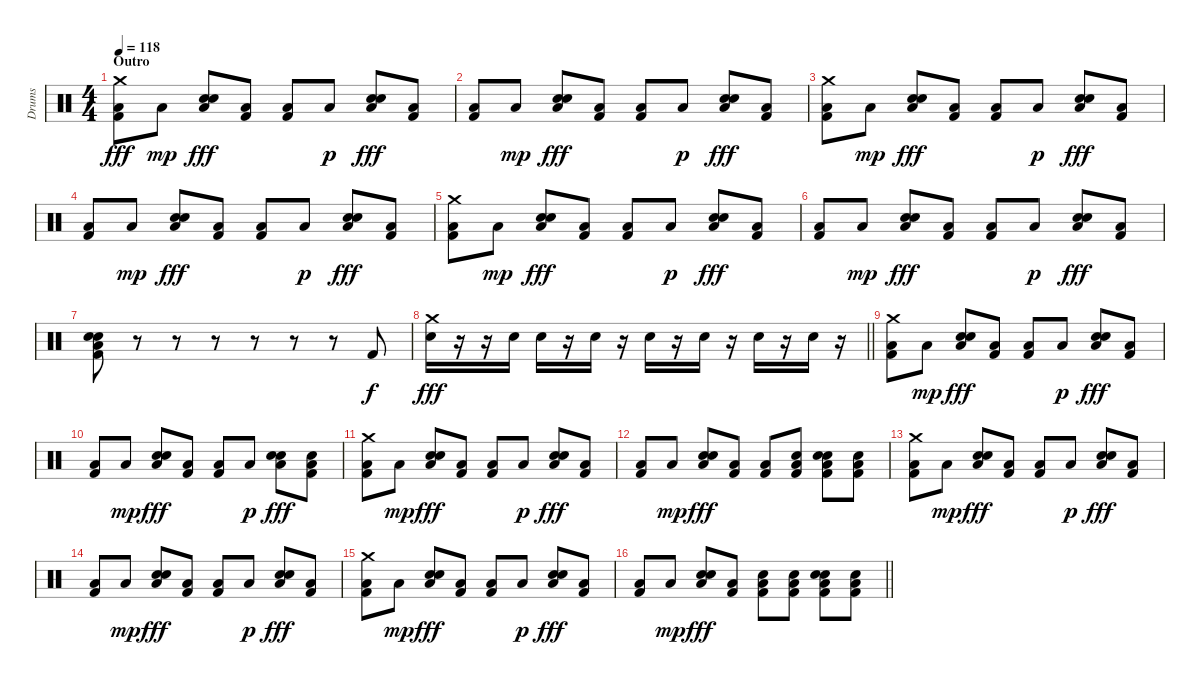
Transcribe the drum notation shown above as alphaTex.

\track ("Drums" "Drums") {instrument percussion}
\staff {score}
\articulation defaults
\ts (4 4)
\section ("" "Outro")
\tempo 118
\clef neutral
\ks c
("Crash medium (hit)" "Low Floor Tom (hit)" "Kick (hit) 2").8{dy fff} "Low Floor Tom (hit)".8{dy mp} ("Hand Clap (hit)" "Snare (hit) 2" "Low Floor Tom (hit)").8{dy fff} ("Low Floor Tom (hit)" "Kick (hit) 2").8 ("Low Floor Tom (hit)" "Kick (hit) 2").8 "Low Floor Tom (hit)".8{dy p} ("Hand Clap (hit)" "Snare (hit) 2" "Low Floor Tom (hit)").8{dy fff} ("Low Floor Tom (hit)" "Kick (hit) 2").8 |
("Low Floor Tom (hit)" "Kick (hit) 2").8 "Low Floor Tom (hit)".8{dy mp} ("Hand Clap (hit)" "Snare (hit) 2" "Low Floor Tom (hit)").8{dy fff} ("Low Floor Tom (hit)" "Kick (hit) 2").8 ("Low Floor Tom (hit)" "Kick (hit) 2").8 "Low Floor Tom (hit)".8{dy p} ("Hand Clap (hit)" "Snare (hit) 2" "Low Floor Tom (hit)").8{dy fff} ("Low Floor Tom (hit)" "Kick (hit) 2").8 |
("Crash medium (hit)" "Low Floor Tom (hit)" "Kick (hit) 2").8 "Low Floor Tom (hit)".8{dy mp} ("Hand Clap (hit)" "Snare (hit) 2" "Low Floor Tom (hit)").8{dy fff} ("Low Floor Tom (hit)" "Kick (hit) 2").8 ("Low Floor Tom (hit)" "Kick (hit) 2").8 "Low Floor Tom (hit)".8{dy p} ("Hand Clap (hit)" "Snare (hit) 2" "Low Floor Tom (hit)").8{dy fff} ("Low Floor Tom (hit)" "Kick (hit) 2").8 |
("Low Floor Tom (hit)" "Kick (hit) 2").8 "Low Floor Tom (hit)".8{dy mp} ("Hand Clap (hit)" "Snare (hit) 2" "Low Floor Tom (hit)").8{dy fff} ("Low Floor Tom (hit)" "Kick (hit) 2").8 ("Low Floor Tom (hit)" "Kick (hit) 2").8 "Low Floor Tom (hit)".8{dy p} ("Hand Clap (hit)" "Snare (hit) 2" "Low Floor Tom (hit)").8{dy fff} ("Low Floor Tom (hit)" "Kick (hit) 2").8 |
("Crash medium (hit)" "Low Floor Tom (hit)" "Kick (hit) 2").8 "Low Floor Tom (hit)".8{dy mp} ("Hand Clap (hit)" "Snare (hit) 2" "Low Floor Tom (hit)").8{dy fff} ("Low Floor Tom (hit)" "Kick (hit) 2").8 ("Low Floor Tom (hit)" "Kick (hit) 2").8 "Low Floor Tom (hit)".8{dy p} ("Hand Clap (hit)" "Snare (hit) 2" "Low Floor Tom (hit)").8{dy fff} ("Low Floor Tom (hit)" "Kick (hit) 2").8 |
("Low Floor Tom (hit)" "Kick (hit) 2").8 "Low Floor Tom (hit)".8{dy mp} ("Hand Clap (hit)" "Snare (hit) 2" "Low Floor Tom (hit)").8{dy fff} ("Low Floor Tom (hit)" "Kick (hit) 2").8 ("Low Floor Tom (hit)" "Kick (hit) 2").8 "Low Floor Tom (hit)".8{dy p} ("Hand Clap (hit)" "Snare (hit) 2" "Low Floor Tom (hit)").8{dy fff} ("Low Floor Tom (hit)" "Kick (hit) 2").8 |
("Snare (hit) 2" "Snare (hit) 2" "Low Floor Tom (hit)" "Kick (hit) 2").8 r.8 r.8 r.8 r.8 r.8 r.8 "Kick (hit) 2".8{dy f} |
\barLineRight lightlight
("Crash medium (hit)" "Snare (hit) 2").16{dy fff} r.16 r.16 "Snare (hit) 2".16 "Snare (hit) 2".16 r.16 "Snare (hit) 2".16 r.16 "Snare (hit) 2".16 r.16 "Snare (hit) 2".16 r.16 "Snare (hit) 2".16 r.16 "Snare (hit) 2".16 r.16 |
("Crash medium (hit)" "Low Floor Tom (hit)" "Kick (hit) 2").8 "Low Floor Tom (hit)".8{dy mp} ("Hand Clap (hit)" "Snare (hit) 2" "Low Floor Tom (hit)").8{dy fff} ("Low Floor Tom (hit)" "Kick (hit) 2").8 ("Low Floor Tom (hit)" "Kick (hit) 2").8 "Low Floor Tom (hit)".8{dy p} ("Hand Clap (hit)" "Snare (hit) 2" "Low Floor Tom (hit)").8{dy fff} ("Low Floor Tom (hit)" "Kick (hit) 2").8 |
("Low Floor Tom (hit)" "Kick (hit) 2").8 "Low Floor Tom (hit)".8{dy mp} ("Hand Clap (hit)" "Snare (hit) 2" "Low Floor Tom (hit)").8{dy fff} ("Low Floor Tom (hit)" "Kick (hit) 2").8 ("Low Floor Tom (hit)" "Kick (hit) 2").8 "Low Floor Tom (hit)".8{dy p} ("Hand Clap (hit)" "Snare (hit) 2" "Low Floor Tom (hit)").8{dy fff} ("Snare (hit) 2" "Low Floor Tom (hit)" "Kick (hit) 2").8 |
("Crash medium (hit)" "Low Floor Tom (hit)" "Kick (hit) 2").8 "Low Floor Tom (hit)".8{dy mp} ("Hand Clap (hit)" "Snare (hit) 2" "Low Floor Tom (hit)").8{dy fff} ("Low Floor Tom (hit)" "Kick (hit) 2").8 ("Low Floor Tom (hit)" "Kick (hit) 2").8 "Low Floor Tom (hit)".8{dy p} ("Hand Clap (hit)" "Snare (hit) 2" "Low Floor Tom (hit)").8{dy fff} ("Low Floor Tom (hit)" "Kick (hit) 2").8 |
("Low Floor Tom (hit)" "Kick (hit) 2").8 "Low Floor Tom (hit)".8{dy mp} ("Hand Clap (hit)" "Snare (hit) 2" "Low Floor Tom (hit)").8{dy fff} ("Low Floor Tom (hit)" "Kick (hit) 2").8 ("Low Floor Tom (hit)" "Kick (hit) 2").8 ("Snare (hit) 2" "Low Floor Tom (hit)" "Kick (hit) 2").8 ("Hand Clap (hit)" "Snare (hit) 2" "Low Floor Tom (hit)" "Kick (hit) 2").8 ("Snare (hit) 2" "Low Floor Tom (hit)" "Kick (hit) 2").8 |
("Crash medium (hit)" "Low Floor Tom (hit)" "Kick (hit) 2").8 "Low Floor Tom (hit)".8{dy mp} ("Hand Clap (hit)" "Snare (hit) 2" "Low Floor Tom (hit)").8{dy fff} ("Low Floor Tom (hit)" "Kick (hit) 2").8 ("Low Floor Tom (hit)" "Kick (hit) 2").8 "Low Floor Tom (hit)".8{dy p} ("Hand Clap (hit)" "Snare (hit) 2" "Low Floor Tom (hit)").8{dy fff} ("Low Floor Tom (hit)" "Kick (hit) 2").8 |
("Low Floor Tom (hit)" "Kick (hit) 2").8 "Low Floor Tom (hit)".8{dy mp} ("Hand Clap (hit)" "Snare (hit) 2" "Low Floor Tom (hit)").8{dy fff} ("Low Floor Tom (hit)" "Kick (hit) 2").8 ("Low Floor Tom (hit)" "Kick (hit) 2").8 "Low Floor Tom (hit)".8{dy p} ("Hand Clap (hit)" "Snare (hit) 2" "Low Floor Tom (hit)").8{dy fff} ("Low Floor Tom (hit)" "Kick (hit) 2").8 |
("Crash medium (hit)" "Low Floor Tom (hit)" "Kick (hit) 2").8 "Low Floor Tom (hit)".8{dy mp} ("Hand Clap (hit)" "Snare (hit) 2" "Low Floor Tom (hit)").8{dy fff} ("Low Floor Tom (hit)" "Kick (hit) 2").8 ("Low Floor Tom (hit)" "Kick (hit) 2").8 "Low Floor Tom (hit)".8{dy p} ("Hand Clap (hit)" "Snare (hit) 2" "Low Floor Tom (hit)").8{dy fff} ("Low Floor Tom (hit)" "Kick (hit) 2").8 |
\barLineRight lightlight
("Low Floor Tom (hit)" "Kick (hit) 2").8 "Low Floor Tom (hit)".8{dy mp} ("Hand Clap (hit)" "Snare (hit) 2" "Low Floor Tom (hit)").8{dy fff} ("Low Floor Tom (hit)" "Kick (hit) 2").8 ("Snare (hit) 2" "Low Floor Tom (hit)" "Kick (hit) 2").8 ("Snare (hit) 2" "Low Floor Tom (hit)" "Kick (hit) 2").8 ("Hand Clap (hit)" "Snare (hit) 2" "Low Floor Tom (hit)" "Kick (hit) 2").8 ("Snare (hit) 2" "Low Floor Tom (hit)" "Kick (hit) 2").8
